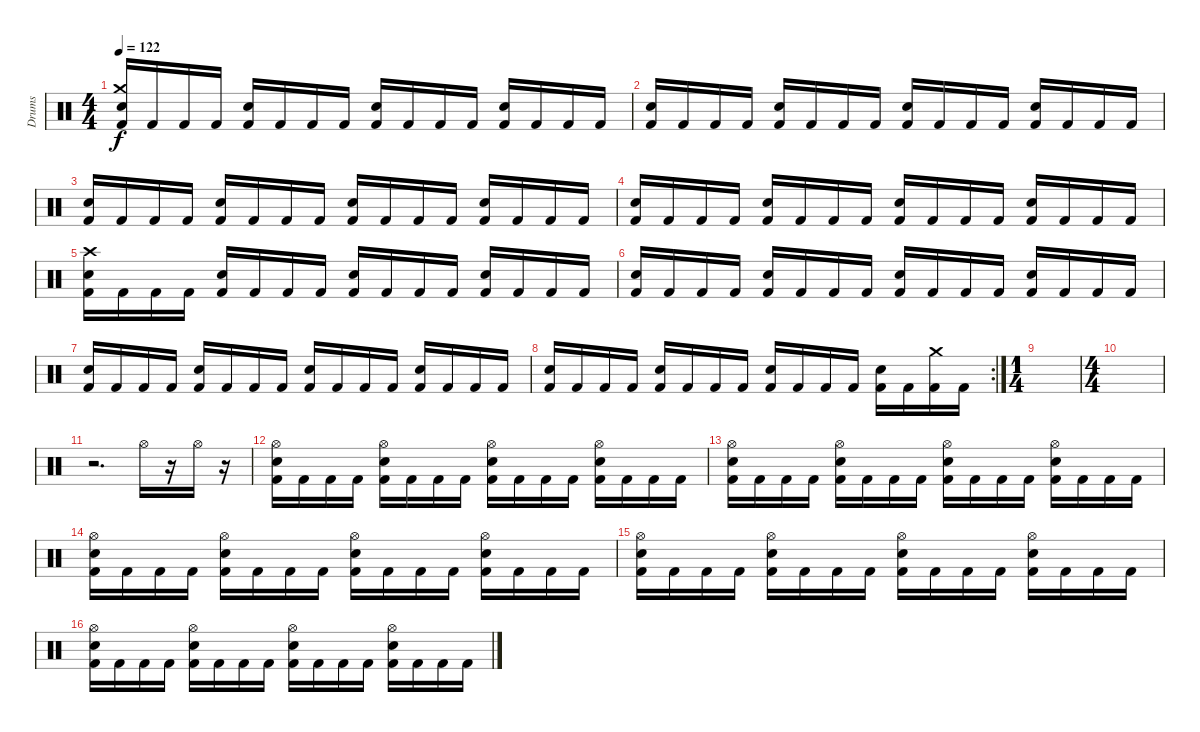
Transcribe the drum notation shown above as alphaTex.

\track ("Drums" "Drums") {instrument percussion}
\staff {score}
\articulation defaults
\ts (4 4)
\tempo 122
\clef neutral
\ks c
("Electric Snare (hit)" "Crash medium (hit)" "Kick (hit) 2").16{dy f} "Kick (hit) 2".16 "Kick (hit) 2".16 "Kick (hit) 2".16 ("Electric Snare (hit)" "Kick (hit) 2").16 "Kick (hit) 2".16 "Kick (hit) 2".16 "Kick (hit) 2".16 ("Electric Snare (hit)" "Kick (hit) 2").16 "Kick (hit) 2".16 "Kick (hit) 2".16 "Kick (hit) 2".16 ("Electric Snare (hit)" "Kick (hit) 2").16 "Kick (hit) 2".16 "Kick (hit) 2".16 "Kick (hit) 2".16 |
("Electric Snare (hit)" "Kick (hit) 2").16 "Kick (hit) 2".16 "Kick (hit) 2".16 "Kick (hit) 2".16 ("Electric Snare (hit)" "Kick (hit) 2").16 "Kick (hit) 2".16 "Kick (hit) 2".16 "Kick (hit) 2".16 ("Electric Snare (hit)" "Kick (hit) 2").16 "Kick (hit) 2".16 "Kick (hit) 2".16 "Kick (hit) 2".16 ("Electric Snare (hit)" "Kick (hit) 2").16 "Kick (hit) 2".16 "Kick (hit) 2".16 "Kick (hit) 2".16 |
("Electric Snare (hit)" "Kick (hit) 2").16 "Kick (hit) 2".16 "Kick (hit) 2".16 "Kick (hit) 2".16 ("Electric Snare (hit)" "Kick (hit) 2").16 "Kick (hit) 2".16 "Kick (hit) 2".16 "Kick (hit) 2".16 ("Electric Snare (hit)" "Kick (hit) 2").16 "Kick (hit) 2".16 "Kick (hit) 2".16 "Kick (hit) 2".16 ("Electric Snare (hit)" "Kick (hit) 2").16 "Kick (hit) 2".16 "Kick (hit) 2".16 "Kick (hit) 2".16 |
("Electric Snare (hit)" "Kick (hit) 2").16 "Kick (hit) 2".16 "Kick (hit) 2".16 "Kick (hit) 2".16 ("Electric Snare (hit)" "Kick (hit) 2").16 "Kick (hit) 2".16 "Kick (hit) 2".16 "Kick (hit) 2".16 ("Electric Snare (hit)" "Kick (hit) 2").16 "Kick (hit) 2".16 "Kick (hit) 2".16 "Kick (hit) 2".16 ("Electric Snare (hit)" "Kick (hit) 2").16 "Kick (hit) 2".16 "Kick (hit) 2".16 "Kick (hit) 2".16 |
("Electric Snare (hit)" "Crash high (hit)" "Kick (hit) 2").16 "Kick (hit) 2".16 "Kick (hit) 2".16 "Kick (hit) 2".16 ("Electric Snare (hit)" "Kick (hit) 2").16 "Kick (hit) 2".16 "Kick (hit) 2".16 "Kick (hit) 2".16 ("Electric Snare (hit)" "Kick (hit) 2").16 "Kick (hit) 2".16 "Kick (hit) 2".16 "Kick (hit) 2".16 ("Electric Snare (hit)" "Kick (hit) 2").16 "Kick (hit) 2".16 "Kick (hit) 2".16 "Kick (hit) 2".16 |
("Electric Snare (hit)" "Kick (hit) 2").16 "Kick (hit) 2".16 "Kick (hit) 2".16 "Kick (hit) 2".16 ("Electric Snare (hit)" "Kick (hit) 2").16 "Kick (hit) 2".16 "Kick (hit) 2".16 "Kick (hit) 2".16 ("Electric Snare (hit)" "Kick (hit) 2").16 "Kick (hit) 2".16 "Kick (hit) 2".16 "Kick (hit) 2".16 ("Electric Snare (hit)" "Kick (hit) 2").16 "Kick (hit) 2".16 "Kick (hit) 2".16 "Kick (hit) 2".16 |
("Electric Snare (hit)" "Kick (hit) 2").16 "Kick (hit) 2".16 "Kick (hit) 2".16 "Kick (hit) 2".16 ("Electric Snare (hit)" "Kick (hit) 2").16 "Kick (hit) 2".16 "Kick (hit) 2".16 "Kick (hit) 2".16 ("Electric Snare (hit)" "Kick (hit) 2").16 "Kick (hit) 2".16 "Kick (hit) 2".16 "Kick (hit) 2".16 ("Electric Snare (hit)" "Kick (hit) 2").16 "Kick (hit) 2".16 "Kick (hit) 2".16 "Kick (hit) 2".16 |
\rc 2
("Electric Snare (hit)" "Kick (hit) 2").16 "Kick (hit) 2".16 "Kick (hit) 2".16 "Kick (hit) 2".16 ("Electric Snare (hit)" "Kick (hit) 2").16 "Kick (hit) 2".16 "Kick (hit) 2".16 "Kick (hit) 2".16 ("Electric Snare (hit)" "Kick (hit) 2").16 "Kick (hit) 2".16 "Kick (hit) 2".16 "Kick (hit) 2".16 ("Electric Snare (hit)" "Kick (hit) 2").16 "Kick (hit) 2".16 ("Crash medium (hit)" "Kick (hit) 2").16 "Kick (hit) 2".16 |
\ts (1 4)
|
\ts (4 4)
|
r.2{d} "Hi-Hat (open)".16 r.16 "Hi-Hat (open)".16 r.16 |
("Hi-Hat (open)" "Electric Snare (hit)" "Kick (hit) 2").16 "Kick (hit) 2".16 "Kick (hit) 2".16 "Kick (hit) 2".16 ("Hi-Hat (open)" "Electric Snare (hit)" "Kick (hit) 2").16 "Kick (hit) 2".16 "Kick (hit) 2".16 "Kick (hit) 2".16 ("Hi-Hat (open)" "Electric Snare (hit)" "Kick (hit) 2").16 "Kick (hit) 2".16 "Kick (hit) 2".16 "Kick (hit) 2".16 ("Hi-Hat (open)" "Electric Snare (hit)" "Kick (hit) 2").16 "Kick (hit) 2".16 "Kick (hit) 2".16 "Kick (hit) 2".16 |
("Hi-Hat (open)" "Electric Snare (hit)" "Kick (hit) 2").16 "Kick (hit) 2".16 "Kick (hit) 2".16 "Kick (hit) 2".16 ("Hi-Hat (open)" "Electric Snare (hit)" "Kick (hit) 2").16 "Kick (hit) 2".16 "Kick (hit) 2".16 "Kick (hit) 2".16 ("Hi-Hat (open)" "Electric Snare (hit)" "Kick (hit) 2").16 "Kick (hit) 2".16 "Kick (hit) 2".16 "Kick (hit) 2".16 ("Hi-Hat (open)" "Electric Snare (hit)" "Kick (hit) 2").16 "Kick (hit) 2".16 "Kick (hit) 2".16 "Kick (hit) 2".16 |
("Hi-Hat (open)" "Electric Snare (hit)" "Kick (hit) 2").16 "Kick (hit) 2".16 "Kick (hit) 2".16 "Kick (hit) 2".16 ("Hi-Hat (open)" "Electric Snare (hit)" "Kick (hit) 2").16 "Kick (hit) 2".16 "Kick (hit) 2".16 "Kick (hit) 2".16 ("Hi-Hat (open)" "Electric Snare (hit)" "Kick (hit) 2").16 "Kick (hit) 2".16 "Kick (hit) 2".16 "Kick (hit) 2".16 ("Hi-Hat (open)" "Electric Snare (hit)" "Kick (hit) 2").16 "Kick (hit) 2".16 "Kick (hit) 2".16 "Kick (hit) 2".16 |
("Hi-Hat (open)" "Electric Snare (hit)" "Kick (hit) 2").16 "Kick (hit) 2".16 "Kick (hit) 2".16 "Kick (hit) 2".16 ("Hi-Hat (open)" "Electric Snare (hit)" "Kick (hit) 2").16 "Kick (hit) 2".16 "Kick (hit) 2".16 "Kick (hit) 2".16 ("Hi-Hat (open)" "Electric Snare (hit)" "Kick (hit) 2").16 "Kick (hit) 2".16 "Kick (hit) 2".16 "Kick (hit) 2".16 ("Hi-Hat (open)" "Electric Snare (hit)" "Kick (hit) 2").16 "Kick (hit) 2".16 "Kick (hit) 2".16 "Kick (hit) 2".16 |
("Hi-Hat (open)" "Electric Snare (hit)" "Kick (hit) 2").16 "Kick (hit) 2".16 "Kick (hit) 2".16 "Kick (hit) 2".16 ("Hi-Hat (open)" "Electric Snare (hit)" "Kick (hit) 2").16 "Kick (hit) 2".16 "Kick (hit) 2".16 "Kick (hit) 2".16 ("Hi-Hat (open)" "Electric Snare (hit)" "Kick (hit) 2").16 "Kick (hit) 2".16 "Kick (hit) 2".16 "Kick (hit) 2".16 ("Hi-Hat (open)" "Electric Snare (hit)" "Kick (hit) 2").16 "Kick (hit) 2".16 "Kick (hit) 2".16 "Kick (hit) 2".16
